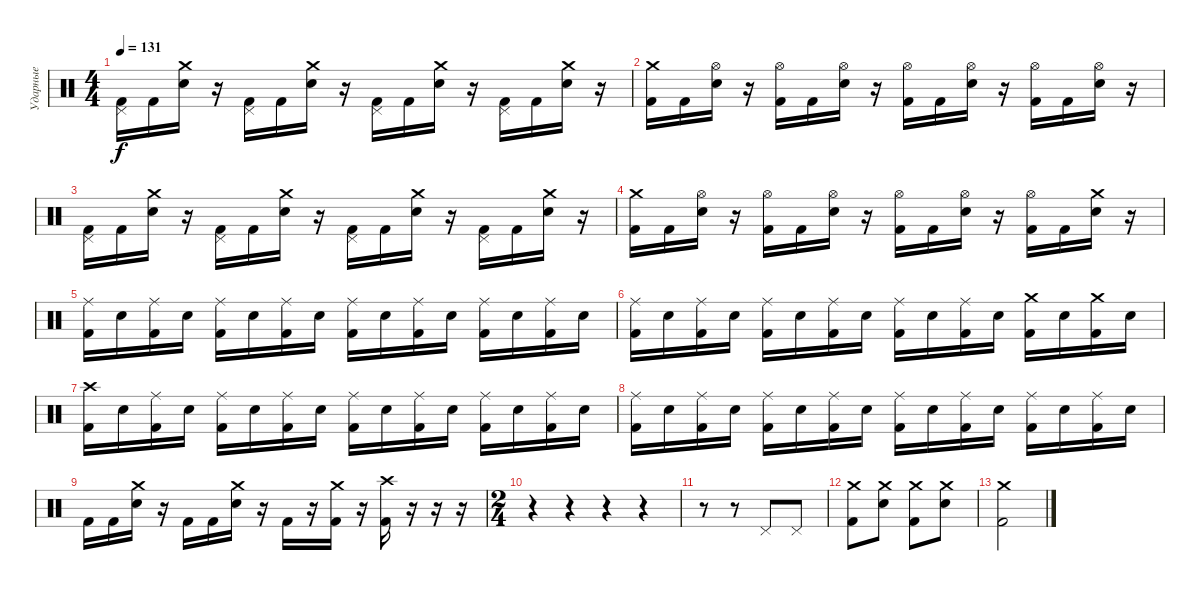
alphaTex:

\track ("Ударные" "Ударные") {instrument percussion}
\staff {score}
\articulation defaults
\ts (4 4)
\tempo 131
\clef neutral
\ks c
("Pedal Hi-Hat (hit)" "Kick (hit) 2").16{dy f} "Kick (hit) 2".16 ("Crash medium (hit)" "Electric Snare (hit)").16 r.16 ("Pedal Hi-Hat (hit)" "Kick (hit) 2").16 "Kick (hit) 2".16 ("Crash medium (hit)" "Electric Snare (hit)").16 r.16 ("Pedal Hi-Hat (hit)" "Kick (hit) 2").16 "Kick (hit) 2".16 ("Crash medium (hit)" "Electric Snare (hit)").16 r.16 ("Pedal Hi-Hat (hit)" "Kick (hit) 2").16 "Kick (hit) 2".16 ("Crash medium (hit)" "Electric Snare (hit)").16 r.16 |
("Crash medium (hit)" "Kick (hit) 2").16 "Kick (hit) 2".16 ("Hi-Hat (open)" "Electric Snare (hit)").16 r.16 ("Hi-Hat (open)" "Kick (hit) 2").16 "Kick (hit) 2".16 ("Hi-Hat (open)" "Electric Snare (hit)").16 r.16 ("Hi-Hat (open)" "Kick (hit) 2").16 "Kick (hit) 2".16 ("Hi-Hat (open)" "Electric Snare (hit)").16 r.16 ("Hi-Hat (open)" "Kick (hit) 2").16 "Kick (hit) 2".16 ("Hi-Hat (open)" "Electric Snare (hit)").16 r.16 |
("Pedal Hi-Hat (hit)" "Kick (hit) 2").16 "Kick (hit) 2".16 ("Crash medium (hit)" "Electric Snare (hit)").16 r.16 ("Pedal Hi-Hat (hit)" "Kick (hit) 2").16 "Kick (hit) 2".16 ("Crash medium (hit)" "Electric Snare (hit)").16 r.16 ("Pedal Hi-Hat (hit)" "Kick (hit) 2").16 "Kick (hit) 2".16 ("Crash medium (hit)" "Electric Snare (hit)").16 r.16 ("Pedal Hi-Hat (hit)" "Kick (hit) 2").16 "Kick (hit) 2".16 ("Crash medium (hit)" "Electric Snare (hit)").16 r.16 |
("Crash medium (hit)" "Kick (hit) 2").16 "Kick (hit) 2".16 ("Hi-Hat (open)" "Electric Snare (hit)").16 r.16 ("Hi-Hat (open)" "Kick (hit) 2").16 "Kick (hit) 2".16 ("Hi-Hat (open)" "Electric Snare (hit)").16 r.16 ("Hi-Hat (open)" "Kick (hit) 2").16 "Kick (hit) 2".16 ("Hi-Hat (open)" "Electric Snare (hit)").16 r.16 ("Hi-Hat (open)" "Kick (hit) 2").16 "Kick (hit) 2".16 ("Crash medium (hit)" "Electric Snare (hit)").16 r.16 |
("Ride (middle)" "Kick (hit) 2").16 "Electric Snare (hit)".16 ("Ride (middle)" "Kick (hit) 2").16 "Electric Snare (hit)".16 ("Ride (middle)" "Kick (hit) 2").16 "Electric Snare (hit)".16 ("Ride (middle)" "Kick (hit) 2").16 "Electric Snare (hit)".16 ("Ride (middle)" "Kick (hit) 2").16 "Electric Snare (hit)".16 ("Ride (middle)" "Kick (hit) 2").16 "Electric Snare (hit)".16 ("Ride (middle)" "Kick (hit) 2").16 "Electric Snare (hit)".16 ("Ride (middle)" "Kick (hit) 2").16 "Electric Snare (hit)".16 |
("Ride (middle)" "Kick (hit) 2").16 "Electric Snare (hit)".16 ("Ride (middle)" "Kick (hit) 2").16 "Electric Snare (hit)".16 ("Ride (middle)" "Kick (hit) 2").16 "Electric Snare (hit)".16 ("Ride (middle)" "Kick (hit) 2").16 "Electric Snare (hit)".16 ("Ride (middle)" "Kick (hit) 2").16 "Electric Snare (hit)".16 ("Ride (middle)" "Kick (hit) 2").16 "Electric Snare (hit)".16 ("Crash medium (hit)" "Kick (hit) 2").16 "Electric Snare (hit)".16 ("Crash medium (hit)" "Kick (hit) 2").16 "Electric Snare (hit)".16 |
("Crash high (hit)" "Kick (hit) 2").16 "Electric Snare (hit)".16 ("Ride (middle)" "Kick (hit) 2").16 "Electric Snare (hit)".16 ("Ride (middle)" "Kick (hit) 2").16 "Electric Snare (hit)".16 ("Ride (middle)" "Kick (hit) 2").16 "Electric Snare (hit)".16 ("Ride (middle)" "Kick (hit) 2").16 "Electric Snare (hit)".16 ("Ride (middle)" "Kick (hit) 2").16 "Electric Snare (hit)".16 ("Ride (middle)" "Kick (hit) 2").16 "Electric Snare (hit)".16 ("Ride (middle)" "Kick (hit) 2").16 "Electric Snare (hit)".16 |
("Ride (middle)" "Kick (hit) 2").16 "Electric Snare (hit)".16 ("Ride (middle)" "Kick (hit) 2").16 "Electric Snare (hit)".16 ("Ride (middle)" "Kick (hit) 2").16 "Electric Snare (hit)".16 ("Ride (middle)" "Kick (hit) 2").16 "Electric Snare (hit)".16 ("Ride (middle)" "Kick (hit) 2").16 "Electric Snare (hit)".16 ("Ride (middle)" "Kick (hit) 2").16 "Electric Snare (hit)".16 ("Ride (middle)" "Kick (hit) 2").16 "Electric Snare (hit)".16 ("Ride (middle)" "Kick (hit) 2").16 "Electric Snare (hit)".16 |
"Kick (hit) 2".16 "Kick (hit) 2".16 ("Crash medium (hit)" "Electric Snare (hit)").16 r.16 "Kick (hit) 2".16 "Kick (hit) 2".16 ("Crash medium (hit)" "Electric Snare (hit)").16 r.16 "Kick (hit) 2".16 r.16 ("Crash medium (hit)" "Kick (hit) 2").16 r.16 ("Crash high (hit)" "Kick (hit) 2").16 r.16 r.16 r.16 |
\ts (2 4)
r.4 r.4 r.4 r.4 |
r.8 r.8 "Pedal Hi-Hat (hit)".8 "Pedal Hi-Hat (hit)".8 |
("Crash medium (hit)" "Kick (hit) 2").8 ("Crash medium (hit)" "Electric Snare (hit)").8 ("Crash medium (hit)" "Kick (hit) 2").8 ("Crash medium (hit)" "Electric Snare (hit)").8 |
("Crash medium (hit)" "Kick (hit) 2").2
